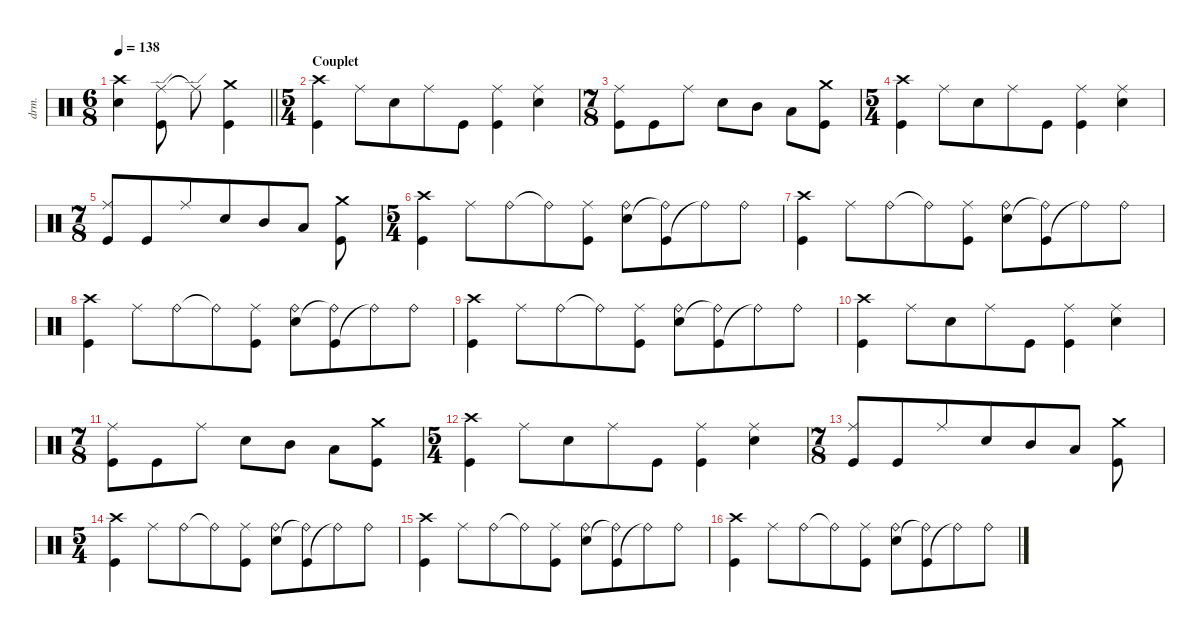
\defaultSystemsLayout 4
\hideDynamics
\bracketExtendMode nobrackets
\track ("Percussions" "drm.") {instrument percussion}
\staff {score}
\articulation defaults
\ts (6 8)
\tempo 138
\clef neutral
\barLineRight lightlight
\ks aminor
("Crash high (hit)" "Snare (hit) 2").4{dy f beam Down} ("Ride (edge)" "Kick (hit)").8{beam Down} "Ride (edge)"{t}.8{beam Down} ("Crash medium (hit)" "Kick (hit)").4{beam Down} |
\ts (5 4)
\beaming (8 6 4)
\section ("" "Couplet")
("Crash high (hit)" "Kick (hit)").4{beam Down} "Ride (middle)".8{beam Down} "Snare (hit) 2".8{beam Down} "Ride (middle)".8{beam Down} "Kick (hit)".8{beam Down} ("Ride (middle)" "Kick (hit)").4{beam Down} ("Ride (middle)" "Snare (hit) 2").4{beam Down} |
\ts (7 8)
\beaming (8 3 2 2)
("Ride (middle)" "Kick (hit)").8{beam Down} "Kick (hit)".8{beam Down} "Ride (middle)".8{beam Down} "Snare (hit) 2".8{beam Down} "Mid Tom (hit)".8{beam Down} "Low Tom (hit)".8{beam Down} ("Kick (hit)" "Crash medium (hit)").8{beam Down} |
\ts (5 4)
\beaming (8 6 4)
("Crash high (hit)" "Kick (hit)").4{beam Down} "Ride (middle)".8{beam Down} "Snare (hit) 2".8{beam Down} "Ride (middle)".8{beam Down} "Kick (hit)".8{beam Down} ("Ride (middle)" "Kick (hit)").4{beam Down} ("Ride (middle)" "Snare (hit) 2").4{beam Down} |
\ts (7 8)
\beaming (8 6 4)
("Ride (middle)" "Kick (hit)").8{beam Up} "Kick (hit)".8{beam Up} "Ride (middle)".8{beam Up} "Snare (hit) 2".8{beam Up} "Mid Tom (hit)".8{beam Up} "Low Tom (hit)".8{beam Up} ("Kick (hit)" "Crash medium (hit)").8{beam Down} |
\ts (5 4)
\beaming (8 6 4)
("Crash high (hit)" "Kick (hit)").4{beam Down} "Ride (middle)".8{beam Down} "Ride (bell)".8{beam Down} "Ride (bell)"{t}.8{beam Down} ("Ride (middle)" "Kick (hit)").8{beam Down} ("Ride (bell)" "Snare (hit) 2").8{beam Down} ("Kick (hit)" "Ride (bell)"{t}).8{beam Down} "Ride (bell)"{t}.8{beam Down} "Ride (bell)".8{beam Down} |
("Crash high (hit)" "Kick (hit)").4{beam Down} "Ride (middle)".8{beam Down} "Ride (bell)".8{beam Down} "Ride (bell)"{t}.8{beam Down} ("Ride (middle)" "Kick (hit)").8{beam Down} ("Ride (bell)" "Snare (hit) 2").8{beam Down} ("Kick (hit)" "Ride (bell)"{t}).8{beam Down} "Ride (bell)"{t}.8{beam Down} "Ride (bell)".8{beam Down} |
("Crash high (hit)" "Kick (hit)").4{beam Down} "Ride (middle)".8{beam Down} "Ride (bell)".8{beam Down} "Ride (bell)"{t}.8{beam Down} ("Ride (middle)" "Kick (hit)").8{beam Down} ("Ride (bell)" "Snare (hit) 2").8{beam Down} ("Kick (hit)" "Ride (bell)"{t}).8{beam Down} "Ride (bell)"{t}.8{beam Down} "Ride (bell)".8{beam Down} |
("Crash high (hit)" "Kick (hit)").4{beam Down} "Ride (middle)".8{beam Down} "Ride (bell)".8{beam Down} "Ride (bell)"{t}.8{beam Down} ("Ride (middle)" "Kick (hit)").8{beam Down} ("Ride (bell)" "Snare (hit) 2").8{beam Down} ("Kick (hit)" "Ride (bell)"{t}).8{beam Down} "Ride (bell)"{t}.8{beam Down} "Ride (bell)".8{beam Down} |
("Crash high (hit)" "Kick (hit)").4{beam Down} "Ride (middle)".8{beam Down} "Snare (hit) 2".8{beam Down} "Ride (middle)".8{beam Down} "Kick (hit)".8{beam Down} ("Ride (middle)" "Kick (hit)").4{beam Down} ("Ride (middle)" "Snare (hit) 2").4{beam Down} |
\ts (7 8)
\beaming (8 3 2 2)
("Ride (middle)" "Kick (hit)").8{beam Down} "Kick (hit)".8{beam Down} "Ride (middle)".8{beam Down} "Snare (hit) 2".8{beam Down} "Mid Tom (hit)".8{beam Down} "Low Tom (hit)".8{beam Down} ("Kick (hit)" "Crash medium (hit)").8{beam Down} |
\ts (5 4)
\beaming (8 6 4)
("Crash high (hit)" "Kick (hit)").4{beam Down} "Ride (middle)".8{beam Down} "Snare (hit) 2".8{beam Down} "Ride (middle)".8{beam Down} "Kick (hit)".8{beam Down} ("Ride (middle)" "Kick (hit)").4{beam Down} ("Ride (middle)" "Snare (hit) 2").4{beam Down} |
\ts (7 8)
\beaming (8 6 4)
("Ride (middle)" "Kick (hit)").8{beam Up} "Kick (hit)".8{beam Up} "Ride (middle)".8{beam Up} "Snare (hit) 2".8{beam Up} "Mid Tom (hit)".8{beam Up} "Low Tom (hit)".8{beam Up} ("Kick (hit)" "Crash medium (hit)").8{beam Down} |
\ts (5 4)
\beaming (8 6 4)
("Crash high (hit)" "Kick (hit)").4{beam Down} "Ride (middle)".8{beam Down} "Ride (bell)".8{beam Down} "Ride (bell)"{t}.8{beam Down} ("Ride (middle)" "Kick (hit)").8{beam Down} ("Ride (bell)" "Snare (hit) 2").8{beam Down} ("Kick (hit)" "Ride (bell)"{t}).8{beam Down} "Ride (bell)"{t}.8{beam Down} "Ride (bell)".8{beam Down} |
("Crash high (hit)" "Kick (hit)").4{beam Down} "Ride (middle)".8{beam Down} "Ride (bell)".8{beam Down} "Ride (bell)"{t}.8{beam Down} ("Ride (middle)" "Kick (hit)").8{beam Down} ("Ride (bell)" "Snare (hit) 2").8{beam Down} ("Kick (hit)" "Ride (bell)"{t}).8{beam Down} "Ride (bell)"{t}.8{beam Down} "Ride (bell)".8{beam Down} |
("Crash high (hit)" "Kick (hit)").4{beam Down} "Ride (middle)".8{beam Down} "Ride (bell)".8{beam Down} "Ride (bell)"{t}.8{beam Down} ("Ride (middle)" "Kick (hit)").8{beam Down} ("Ride (bell)" "Snare (hit) 2").8{beam Down} ("Kick (hit)" "Ride (bell)"{t}).8{beam Down} "Ride (bell)"{t}.8{beam Down} "Ride (bell)".8{beam Down}
